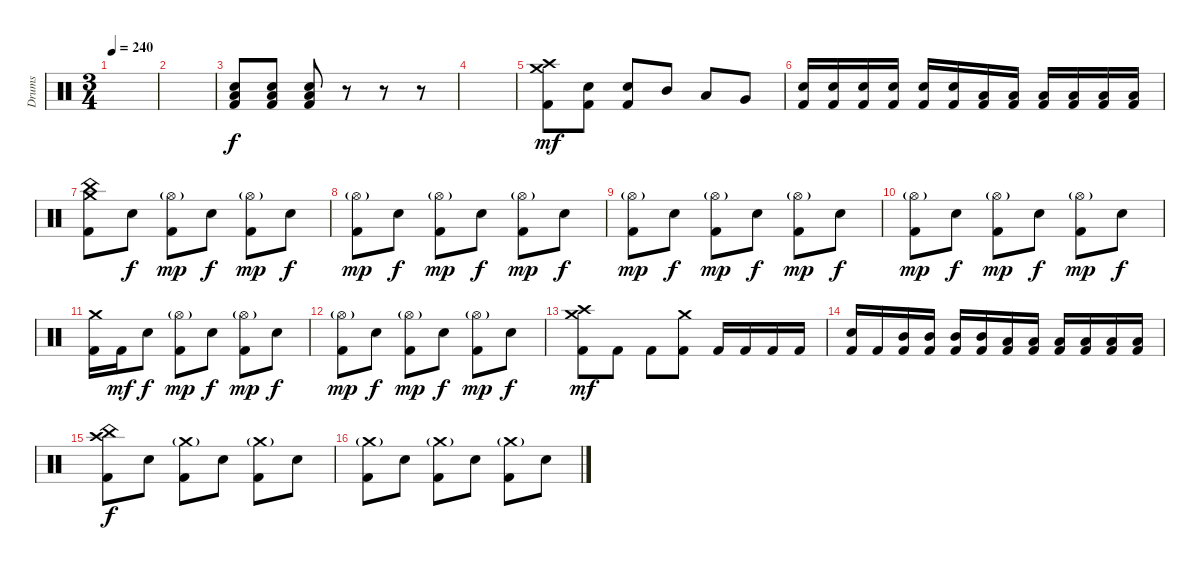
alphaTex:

\track ("Drums" "Drums") {instrument percussion}
\staff {score}
\articulation defaults
\ts (3 4)
\tempo 240
\clef neutral
\ks c
|
|
("Electric Snare (hit)" "Low Floor Tom (hit)" "Kick (hit) 2").8 ("Electric Snare (hit)" "Low Floor Tom (hit)" "Kick (hit) 2").8 ("Electric Snare (hit)" "Low Floor Tom (hit)" "Kick (hit) 2").8 r.8 r.8 r.8 |
|
("Crash high (hit)" "Crash medium (hit)" "Kick (hit) 2").8{dy mf} ("Electric Snare (hit)" "Kick (hit) 2").8 ("Electric Snare (hit)" "Kick (hit) 2").8 "Mid Tom (hit)".8 "Low Tom (hit)".8 "Very Low Tom (hit)".8 |
("Electric Snare (hit)" "Kick (hit) 2").16 ("Electric Snare (hit)" "Kick (hit) 2").16 ("Electric Snare (hit)" "Kick (hit) 2").16 ("Electric Snare (hit)" "Kick (hit) 2").16 ("Electric Snare (hit)" "Kick (hit) 2").16 ("Electric Snare (hit)" "Kick (hit) 2").16 ("Low Tom (hit)" "Kick (hit) 2").16 ("Low Tom (hit)" "Kick (hit) 2").16 ("Low Tom (hit)" "Kick (hit) 2").16 ("Low Tom (hit)" "Kick (hit) 2").16 ("Low Tom (hit)" "Kick (hit) 2").16 ("Low Tom (hit)" "Kick (hit) 2").16 |
("China (hit)" "Crash medium (hit)" "Kick (hit) 2").8 "Electric Snare (hit)".8{dy f} ("Hi-Hat (open)"{g} "Kick (hit) 2").8{dy mp} "Electric Snare (hit)".8{dy f} ("Hi-Hat (open)"{g} "Kick (hit) 2").8{dy mp} "Electric Snare (hit)".8{dy f} |
("Hi-Hat (open)"{g} "Kick (hit) 2").8{dy mp} "Electric Snare (hit)".8{dy f} ("Hi-Hat (open)"{g} "Kick (hit) 2").8{dy mp} "Electric Snare (hit)".8{dy f} ("Hi-Hat (open)"{g} "Kick (hit) 2").8{dy mp} "Electric Snare (hit)".8{dy f} |
("Hi-Hat (open)"{g} "Kick (hit) 2").8{dy mp} "Electric Snare (hit)".8{dy f} ("Hi-Hat (open)"{g} "Kick (hit) 2").8{dy mp} "Electric Snare (hit)".8{dy f} ("Hi-Hat (open)"{g} "Kick (hit) 2").8{dy mp} "Electric Snare (hit)".8{dy f} |
("Hi-Hat (open)"{g} "Kick (hit) 2").8{dy mp} "Electric Snare (hit)".8{dy f} ("Hi-Hat (open)"{g} "Kick (hit) 2").8{dy mp} "Electric Snare (hit)".8{dy f} ("Hi-Hat (open)"{g} "Kick (hit) 2").8{dy mp} "Electric Snare (hit)".8{dy f} |
("Crash medium (hit)" "Kick (hit) 2").16 "Kick (hit) 2".16{dy mf} "Electric Snare (hit)".8{dy f} ("Hi-Hat (open)"{g} "Kick (hit) 2").8{dy mp} "Electric Snare (hit)".8{dy f} ("Hi-Hat (open)"{g} "Kick (hit) 2").8{dy mp} "Electric Snare (hit)".8{dy f} |
("Hi-Hat (open)"{g} "Kick (hit) 2").8{dy mp} "Electric Snare (hit)".8{dy f} ("Hi-Hat (open)"{g} "Kick (hit) 2").8{dy mp} "Electric Snare (hit)".8{dy f} ("Hi-Hat (open)"{g} "Kick (hit) 2").8{dy mp} "Electric Snare (hit)".8{dy f} |
("Crash high (hit)" "Crash medium (hit)" "Kick (hit) 2").8{dy mf} "Kick (hit) 2".8 "Kick (hit) 2".8 ("Crash medium (hit)" "Kick (hit) 2").8 "Kick (hit) 2".16 "Kick (hit) 2".16 "Kick (hit) 2".16 "Kick (hit) 2".16 |
("Electric Snare (hit)" "Kick (hit) 2").16 "Kick (hit) 2".16 ("Mid Tom (hit)" "Kick (hit) 2").16 ("Mid Tom (hit)" "Kick (hit) 2").16 ("Mid Tom (hit)" "Kick (hit) 2").16 ("Mid Tom (hit)" "Kick (hit) 2").16 ("Low Tom (hit)" "Kick (hit) 2").16 ("Low Tom (hit)" "Kick (hit) 2").16 ("Low Tom (hit)" "Kick (hit) 2").16 ("Low Tom (hit)" "Kick (hit) 2").16 ("Low Tom (hit)" "Kick (hit) 2").16 ("Low Tom (hit)" "Kick (hit) 2").16 |
("China (hit)" "Crash high (hit)" "Kick (hit) 2").8{dy f} "Electric Snare (hit)".8 ("Crash medium (hit)"{g} "Kick (hit) 2").8 "Electric Snare (hit)".8 ("Crash medium (hit)"{g} "Kick (hit) 2").8 "Electric Snare (hit)".8 |
("Crash medium (hit)"{g} "Kick (hit) 2").8 "Electric Snare (hit)".8 ("Crash medium (hit)"{g} "Kick (hit) 2").8 "Electric Snare (hit)".8 ("Crash medium (hit)"{g} "Kick (hit) 2").8 "Electric Snare (hit)".8
